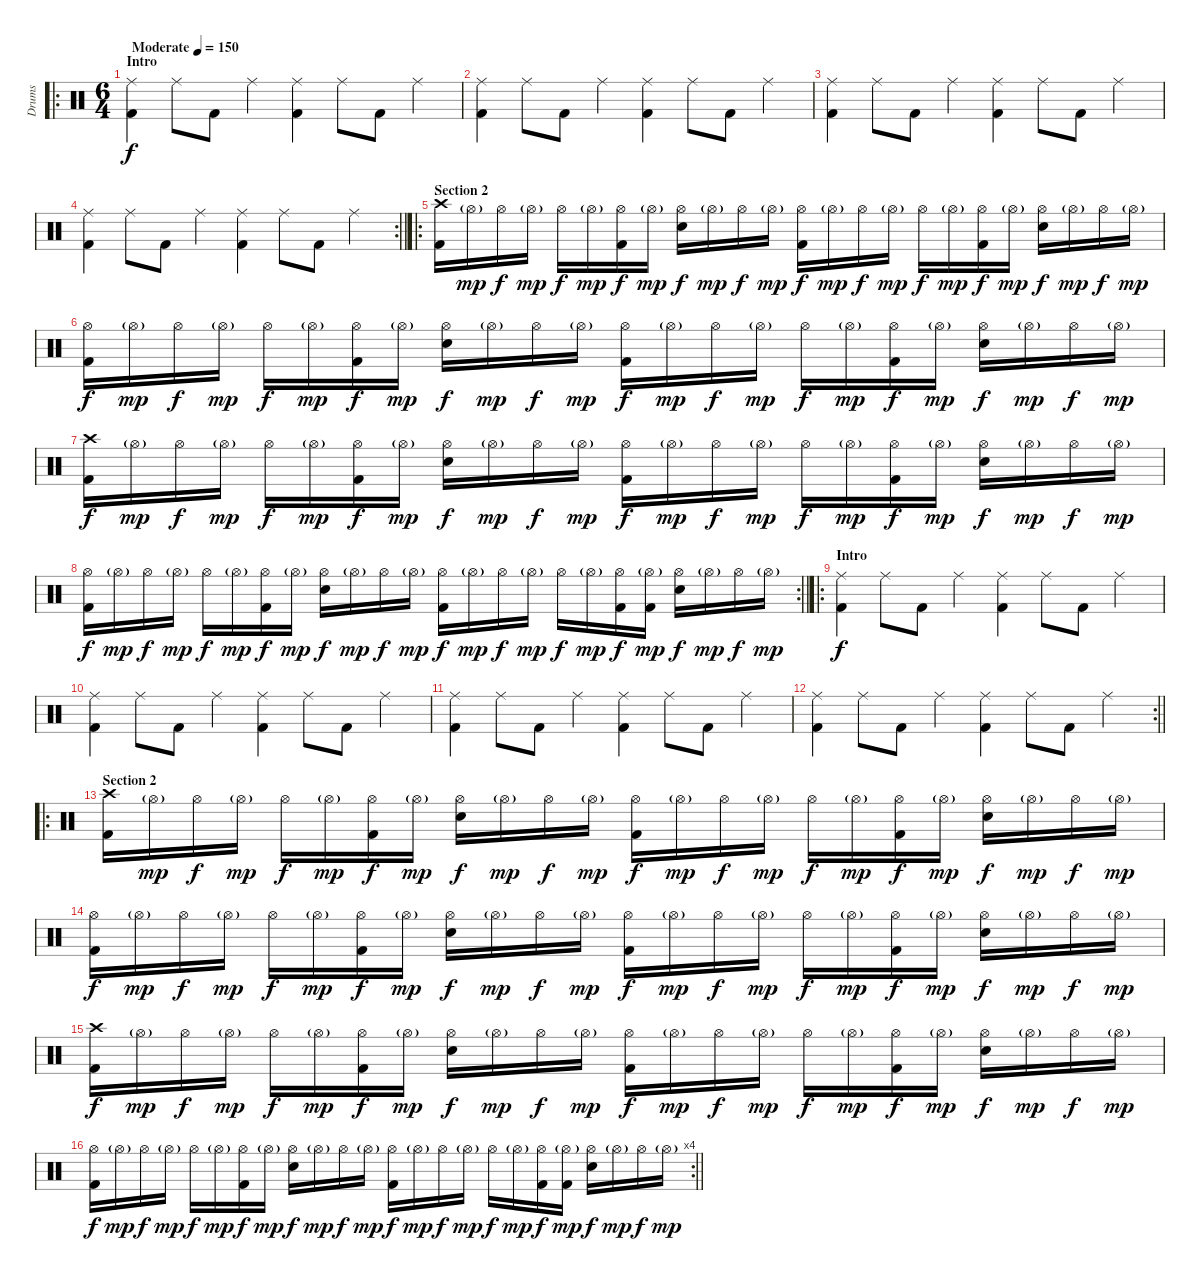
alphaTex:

\track ("Drums" "Drums") {instrument percussion}
\staff {score}
\articulation defaults
\ro
\ts (6 4)
\section ("" "Intro")
\tempo (150 "Moderate")
\clef neutral
\ks c
("Kick (hit) 2" "Ride (middle)").4{dy f} "Ride (middle)".8 "Kick (hit) 2".8 "Ride (middle)".4 ("Kick (hit) 2" "Ride (middle)").4 "Ride (middle)".8 "Kick (hit) 2".8 "Ride (middle)".4 |
("Kick (hit) 2" "Ride (middle)").4 "Ride (middle)".8 "Kick (hit) 2".8 "Ride (middle)".4 ("Kick (hit) 2" "Ride (middle)").4 "Ride (middle)".8 "Kick (hit) 2".8 "Ride (middle)".4 |
("Kick (hit) 2" "Ride (middle)").4 "Ride (middle)".8 "Kick (hit) 2".8 "Ride (middle)".4 ("Kick (hit) 2" "Ride (middle)").4 "Ride (middle)".8 "Kick (hit) 2".8 "Ride (middle)".4 |
\rc 2
\barLineRight lightlight
("Kick (hit) 2" "Ride (middle)").4 "Ride (middle)".8 "Kick (hit) 2".8 "Ride (middle)".4 ("Kick (hit) 2" "Ride (middle)").4 "Ride (middle)".8 "Kick (hit) 2".8 "Ride (middle)".4 |
\ro
\section ("" "Section 2")
("Kick (hit) 2" "Crash high (hit)").16 "Hi-Hat (open)"{g}.16{dy mp} "Hi-Hat (open)".16{dy f} "Hi-Hat (open)"{g}.16{dy mp} "Hi-Hat (open)".16{dy f} "Hi-Hat (open)"{g}.16{dy mp} ("Kick (hit) 2" "Hi-Hat (open)").16{dy f} "Hi-Hat (open)"{g}.16{dy mp} ("Snare (hit) 2" "Hi-Hat (open)").16{dy f} "Hi-Hat (open)"{g}.16{dy mp} "Hi-Hat (open)".16{dy f} "Hi-Hat (open)"{g}.16{dy mp} ("Kick (hit) 2" "Hi-Hat (open)").16{dy f} "Hi-Hat (open)"{g}.16{dy mp} "Hi-Hat (open)".16{dy f} "Hi-Hat (open)"{g}.16{dy mp} "Hi-Hat (open)".16{dy f} "Hi-Hat (open)"{g}.16{dy mp} ("Kick (hit) 2" "Hi-Hat (open)").16{dy f} "Hi-Hat (open)"{g}.16{dy mp} ("Snare (hit) 2" "Hi-Hat (open)").16{dy f} "Hi-Hat (open)"{g}.16{dy mp} "Hi-Hat (open)".16{dy f} "Hi-Hat (open)"{g}.16{dy mp} |
("Kick (hit) 2" "Hi-Hat (open)").16{dy f} "Hi-Hat (open)"{g}.16{dy mp} "Hi-Hat (open)".16{dy f} "Hi-Hat (open)"{g}.16{dy mp} "Hi-Hat (open)".16{dy f} "Hi-Hat (open)"{g}.16{dy mp} ("Kick (hit) 2" "Hi-Hat (open)").16{dy f} "Hi-Hat (open)"{g}.16{dy mp} ("Snare (hit) 2" "Hi-Hat (open)").16{dy f} "Hi-Hat (open)"{g}.16{dy mp} "Hi-Hat (open)".16{dy f} "Hi-Hat (open)"{g}.16{dy mp} ("Kick (hit) 2" "Hi-Hat (open)").16{dy f} "Hi-Hat (open)"{g}.16{dy mp} "Hi-Hat (open)".16{dy f} "Hi-Hat (open)"{g}.16{dy mp} "Hi-Hat (open)".16{dy f} "Hi-Hat (open)"{g}.16{dy mp} ("Kick (hit) 2" "Hi-Hat (open)").16{dy f} "Hi-Hat (open)"{g}.16{dy mp} ("Snare (hit) 2" "Hi-Hat (open)").16{dy f} "Hi-Hat (open)"{g}.16{dy mp} "Hi-Hat (open)".16{dy f} "Hi-Hat (open)"{g}.16{dy mp} |
("Kick (hit) 2" "Crash high (hit)").16{dy f} "Hi-Hat (open)"{g}.16{dy mp} "Hi-Hat (open)".16{dy f} "Hi-Hat (open)"{g}.16{dy mp} "Hi-Hat (open)".16{dy f} "Hi-Hat (open)"{g}.16{dy mp} ("Kick (hit) 2" "Hi-Hat (open)").16{dy f} "Hi-Hat (open)"{g}.16{dy mp} ("Snare (hit) 2" "Hi-Hat (open)").16{dy f} "Hi-Hat (open)"{g}.16{dy mp} "Hi-Hat (open)".16{dy f} "Hi-Hat (open)"{g}.16{dy mp} ("Kick (hit) 2" "Hi-Hat (open)").16{dy f} "Hi-Hat (open)"{g}.16{dy mp} "Hi-Hat (open)".16{dy f} "Hi-Hat (open)"{g}.16{dy mp} "Hi-Hat (open)".16{dy f} "Hi-Hat (open)"{g}.16{dy mp} ("Kick (hit) 2" "Hi-Hat (open)").16{dy f} "Hi-Hat (open)"{g}.16{dy mp} ("Snare (hit) 2" "Hi-Hat (open)").16{dy f} "Hi-Hat (open)"{g}.16{dy mp} "Hi-Hat (open)".16{dy f} "Hi-Hat (open)"{g}.16{dy mp} |
\rc 2
\barLineRight lightlight
("Kick (hit) 2" "Hi-Hat (open)").16{dy f} "Hi-Hat (open)"{g}.16{dy mp} "Hi-Hat (open)".16{dy f} "Hi-Hat (open)"{g}.16{dy mp} "Hi-Hat (open)".16{dy f} "Hi-Hat (open)"{g}.16{dy mp} ("Kick (hit) 2" "Hi-Hat (open)").16{dy f} "Hi-Hat (open)"{g}.16{dy mp} ("Snare (hit) 2" "Hi-Hat (open)").16{dy f} "Hi-Hat (open)"{g}.16{dy mp} "Hi-Hat (open)".16{dy f} "Hi-Hat (open)"{g}.16{dy mp} ("Kick (hit) 2" "Hi-Hat (open)").16{dy f} "Hi-Hat (open)"{g}.16{dy mp} "Hi-Hat (open)".16{dy f} "Hi-Hat (open)"{g}.16{dy mp} "Hi-Hat (open)".16{dy f} "Hi-Hat (open)"{g}.16{dy mp} ("Kick (hit) 2" "Hi-Hat (open)").16{dy f} ("Kick (hit) 2" "Hi-Hat (open)"{g}).16{dy mp} ("Snare (hit) 2" "Hi-Hat (open)").16{dy f} "Hi-Hat (open)"{g}.16{dy mp} "Hi-Hat (open)".16{dy f} "Hi-Hat (open)"{g}.16{dy mp} |
\ro
\section ("" "Intro")
("Kick (hit) 2" "Ride (middle)").4{dy f} "Ride (middle)".8 "Kick (hit) 2".8 "Ride (middle)".4 ("Kick (hit) 2" "Ride (middle)").4 "Ride (middle)".8 "Kick (hit) 2".8 "Ride (middle)".4 |
("Kick (hit) 2" "Ride (middle)").4 "Ride (middle)".8 "Kick (hit) 2".8 "Ride (middle)".4 ("Kick (hit) 2" "Ride (middle)").4 "Ride (middle)".8 "Kick (hit) 2".8 "Ride (middle)".4 |
("Kick (hit) 2" "Ride (middle)").4 "Ride (middle)".8 "Kick (hit) 2".8 "Ride (middle)".4 ("Kick (hit) 2" "Ride (middle)").4 "Ride (middle)".8 "Kick (hit) 2".8 "Ride (middle)".4 |
\rc 2
\barLineRight lightlight
("Kick (hit) 2" "Ride (middle)").4 "Ride (middle)".8 "Kick (hit) 2".8 "Ride (middle)".4 ("Kick (hit) 2" "Ride (middle)").4 "Ride (middle)".8 "Kick (hit) 2".8 "Ride (middle)".4 |
\ro
\section ("" "Section 2")
("Kick (hit) 2" "Crash high (hit)").16 "Hi-Hat (open)"{g}.16{dy mp} "Hi-Hat (open)".16{dy f} "Hi-Hat (open)"{g}.16{dy mp} "Hi-Hat (open)".16{dy f} "Hi-Hat (open)"{g}.16{dy mp} ("Kick (hit) 2" "Hi-Hat (open)").16{dy f} "Hi-Hat (open)"{g}.16{dy mp} ("Snare (hit) 2" "Hi-Hat (open)").16{dy f} "Hi-Hat (open)"{g}.16{dy mp} "Hi-Hat (open)".16{dy f} "Hi-Hat (open)"{g}.16{dy mp} ("Kick (hit) 2" "Hi-Hat (open)").16{dy f} "Hi-Hat (open)"{g}.16{dy mp} "Hi-Hat (open)".16{dy f} "Hi-Hat (open)"{g}.16{dy mp} "Hi-Hat (open)".16{dy f} "Hi-Hat (open)"{g}.16{dy mp} ("Kick (hit) 2" "Hi-Hat (open)").16{dy f} "Hi-Hat (open)"{g}.16{dy mp} ("Snare (hit) 2" "Hi-Hat (open)").16{dy f} "Hi-Hat (open)"{g}.16{dy mp} "Hi-Hat (open)".16{dy f} "Hi-Hat (open)"{g}.16{dy mp} |
("Kick (hit) 2" "Hi-Hat (open)").16{dy f} "Hi-Hat (open)"{g}.16{dy mp} "Hi-Hat (open)".16{dy f} "Hi-Hat (open)"{g}.16{dy mp} "Hi-Hat (open)".16{dy f} "Hi-Hat (open)"{g}.16{dy mp} ("Kick (hit) 2" "Hi-Hat (open)").16{dy f} "Hi-Hat (open)"{g}.16{dy mp} ("Snare (hit) 2" "Hi-Hat (open)").16{dy f} "Hi-Hat (open)"{g}.16{dy mp} "Hi-Hat (open)".16{dy f} "Hi-Hat (open)"{g}.16{dy mp} ("Kick (hit) 2" "Hi-Hat (open)").16{dy f} "Hi-Hat (open)"{g}.16{dy mp} "Hi-Hat (open)".16{dy f} "Hi-Hat (open)"{g}.16{dy mp} "Hi-Hat (open)".16{dy f} "Hi-Hat (open)"{g}.16{dy mp} ("Kick (hit) 2" "Hi-Hat (open)").16{dy f} "Hi-Hat (open)"{g}.16{dy mp} ("Snare (hit) 2" "Hi-Hat (open)").16{dy f} "Hi-Hat (open)"{g}.16{dy mp} "Hi-Hat (open)".16{dy f} "Hi-Hat (open)"{g}.16{dy mp} |
("Kick (hit) 2" "Crash high (hit)").16{dy f} "Hi-Hat (open)"{g}.16{dy mp} "Hi-Hat (open)".16{dy f} "Hi-Hat (open)"{g}.16{dy mp} "Hi-Hat (open)".16{dy f} "Hi-Hat (open)"{g}.16{dy mp} ("Kick (hit) 2" "Hi-Hat (open)").16{dy f} "Hi-Hat (open)"{g}.16{dy mp} ("Snare (hit) 2" "Hi-Hat (open)").16{dy f} "Hi-Hat (open)"{g}.16{dy mp} "Hi-Hat (open)".16{dy f} "Hi-Hat (open)"{g}.16{dy mp} ("Kick (hit) 2" "Hi-Hat (open)").16{dy f} "Hi-Hat (open)"{g}.16{dy mp} "Hi-Hat (open)".16{dy f} "Hi-Hat (open)"{g}.16{dy mp} "Hi-Hat (open)".16{dy f} "Hi-Hat (open)"{g}.16{dy mp} ("Kick (hit) 2" "Hi-Hat (open)").16{dy f} "Hi-Hat (open)"{g}.16{dy mp} ("Snare (hit) 2" "Hi-Hat (open)").16{dy f} "Hi-Hat (open)"{g}.16{dy mp} "Hi-Hat (open)".16{dy f} "Hi-Hat (open)"{g}.16{dy mp} |
\rc 4
\barLineRight lightlight
("Kick (hit) 2" "Hi-Hat (open)").16{dy f} "Hi-Hat (open)"{g}.16{dy mp} "Hi-Hat (open)".16{dy f} "Hi-Hat (open)"{g}.16{dy mp} "Hi-Hat (open)".16{dy f} "Hi-Hat (open)"{g}.16{dy mp} ("Kick (hit) 2" "Hi-Hat (open)").16{dy f} "Hi-Hat (open)"{g}.16{dy mp} ("Snare (hit) 2" "Hi-Hat (open)").16{dy f} "Hi-Hat (open)"{g}.16{dy mp} "Hi-Hat (open)".16{dy f} "Hi-Hat (open)"{g}.16{dy mp} ("Kick (hit) 2" "Hi-Hat (open)").16{dy f} "Hi-Hat (open)"{g}.16{dy mp} "Hi-Hat (open)".16{dy f} "Hi-Hat (open)"{g}.16{dy mp} "Hi-Hat (open)".16{dy f} "Hi-Hat (open)"{g}.16{dy mp} ("Kick (hit) 2" "Hi-Hat (open)").16{dy f} ("Kick (hit) 2" "Hi-Hat (open)"{g}).16{dy mp} ("Snare (hit) 2" "Hi-Hat (open)").16{dy f} "Hi-Hat (open)"{g}.16{dy mp} "Hi-Hat (open)".16{dy f} "Hi-Hat (open)"{g}.16{dy mp}
